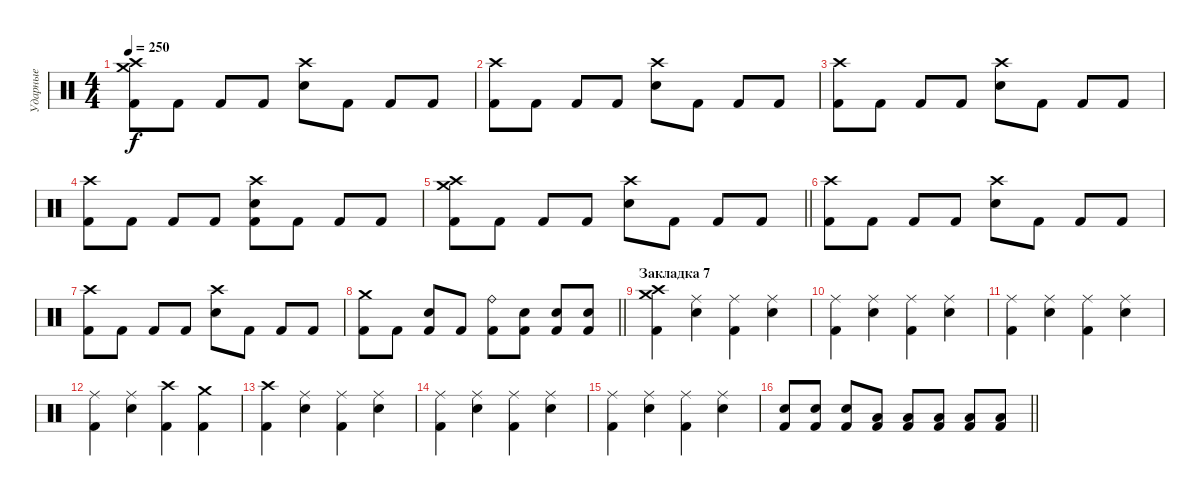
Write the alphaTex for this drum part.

\track ("Ударные" "Ударные") {instrument percussion}
\staff {score}
\articulation defaults
\ts (4 4)
\tempo 250
\clef neutral
\ks c
("Crash medium (hit)" "Crash high (hit)" "Kick (hit) 2").8{dy f} "Kick (hit) 2".8 "Kick (hit) 2".8 "Kick (hit) 2".8 ("Crash high (hit)" "Electric Snare (hit)").8 "Kick (hit) 2".8 "Kick (hit) 2".8 "Kick (hit) 2".8 |
("Crash high (hit)" "Kick (hit) 2").8 "Kick (hit) 2".8 "Kick (hit) 2".8 "Kick (hit) 2".8 ("Crash high (hit)" "Electric Snare (hit)").8 "Kick (hit) 2".8 "Kick (hit) 2".8 "Kick (hit) 2".8 |
("Crash high (hit)" "Kick (hit) 2").8 "Kick (hit) 2".8 "Kick (hit) 2".8 "Kick (hit) 2".8 ("Crash high (hit)" "Electric Snare (hit)").8 "Kick (hit) 2".8 "Kick (hit) 2".8 "Kick (hit) 2".8 |
("Crash high (hit)" "Kick (hit) 2").8 "Kick (hit) 2".8 "Kick (hit) 2".8 "Kick (hit) 2".8 ("Crash high (hit)" "Electric Snare (hit)" "Kick (hit) 2").8 "Kick (hit) 2".8 "Kick (hit) 2".8 "Kick (hit) 2".8 |
\barLineRight lightlight
("Crash medium (hit)" "Crash high (hit)" "Kick (hit) 2").8 "Kick (hit) 2".8 "Kick (hit) 2".8 "Kick (hit) 2".8 ("Crash high (hit)" "Electric Snare (hit)").8 "Kick (hit) 2".8 "Kick (hit) 2".8 "Kick (hit) 2".8 |
("Crash high (hit)" "Kick (hit) 2").8 "Kick (hit) 2".8 "Kick (hit) 2".8 "Kick (hit) 2".8 ("Crash high (hit)" "Electric Snare (hit)").8 "Kick (hit) 2".8 "Kick (hit) 2".8 "Kick (hit) 2".8 |
("Crash high (hit)" "Kick (hit) 2").8 "Kick (hit) 2".8 "Kick (hit) 2".8 "Kick (hit) 2".8 ("Crash high (hit)" "Electric Snare (hit)").8 "Kick (hit) 2".8 "Kick (hit) 2".8 "Kick (hit) 2".8 |
\barLineRight lightlight
("Crash medium (hit)" "Kick (hit) 2").8 "Kick (hit) 2".8 ("Electric Snare (hit)" "Kick (hit) 2").8 "Kick (hit) 2".8 ("Ride (bell)" "Kick (hit) 2").8 ("Electric Snare (hit)" "Kick (hit) 2").8 ("Electric Snare (hit)" "Kick (hit) 2").8 ("Electric Snare (hit)" "Kick (hit) 2").8 |
\section ("" "Закладка 7")
("Crash medium (hit)" "Crash high (hit)" "Kick (hit) 2").4 ("Ride (middle)" "Electric Snare (hit)").4 ("Ride (middle)" "Kick (hit) 2").4 ("Ride (middle)" "Electric Snare (hit)").4 |
("Ride (middle)" "Kick (hit) 2").4 ("Ride (middle)" "Electric Snare (hit)").4 ("Ride (middle)" "Kick (hit) 2").4 ("Ride (middle)" "Electric Snare (hit)").4 |
("Ride (middle)" "Kick (hit) 2").4 ("Ride (middle)" "Electric Snare (hit)").4 ("Ride (middle)" "Kick (hit) 2").4 ("Ride (middle)" "Electric Snare (hit)").4 |
("Ride (middle)" "Kick (hit) 2").4 ("Ride (middle)" "Electric Snare (hit)").4 ("Crash high (hit)" "Kick (hit) 2").4 ("Crash medium (hit)" "Kick (hit) 2").4 |
("Crash high (hit)" "Kick (hit) 2").4 ("Ride (middle)" "Electric Snare (hit)").4 ("Ride (middle)" "Kick (hit) 2").4 ("Ride (middle)" "Electric Snare (hit)").4 |
("Ride (middle)" "Kick (hit) 2").4 ("Ride (middle)" "Electric Snare (hit)").4 ("Ride (middle)" "Kick (hit) 2").4 ("Ride (middle)" "Electric Snare (hit)").4 |
("Ride (middle)" "Kick (hit) 2").4 ("Ride (middle)" "Electric Snare (hit)").4 ("Ride (middle)" "Kick (hit) 2").4 ("Ride (middle)" "Electric Snare (hit)").4 |
\barLineRight lightlight
("Electric Snare (hit)" "Kick (hit) 2").8 ("Electric Snare (hit)" "Kick (hit) 2").8 ("Electric Snare (hit)" "Kick (hit) 2").8 ("Low Tom (hit)" "Kick (hit) 2").8 ("Low Tom (hit)" "Kick (hit) 2").8 ("Low Floor Tom (hit)" "Kick (hit) 2").8 ("Low Floor Tom (hit)" "Kick (hit) 2").8 ("Low Floor Tom (hit)" "Kick (hit) 2").8
